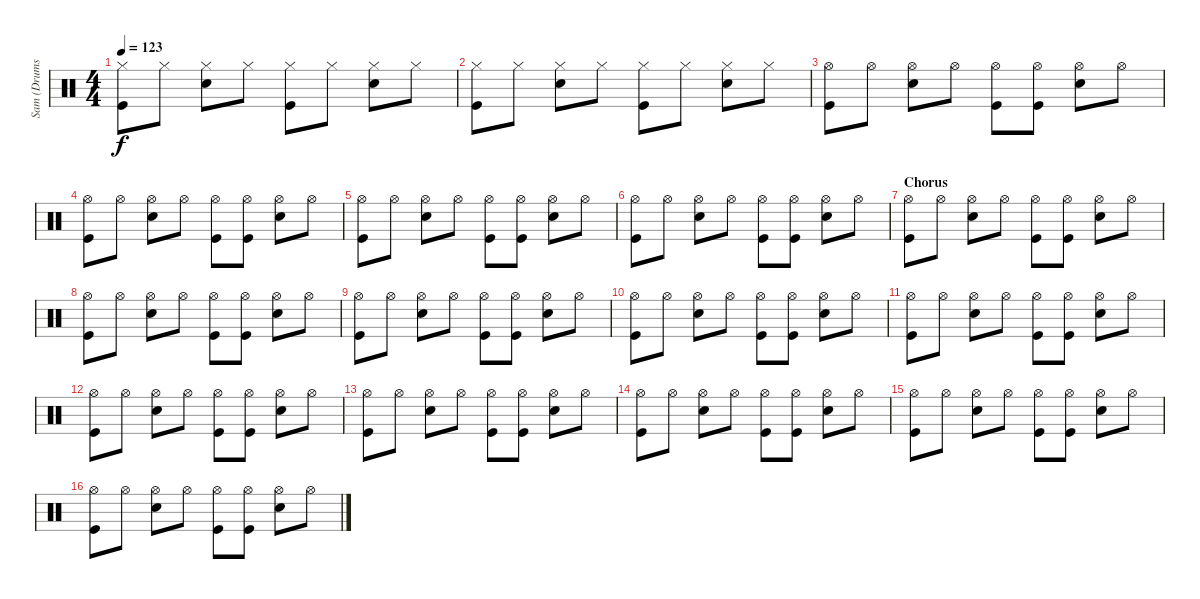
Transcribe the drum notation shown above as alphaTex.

\track ("Sam (Drums)" "Sam (Drums") {instrument percussion}
\staff {score}
\articulation defaults
\ts (4 4)
\tempo 123
\clef neutral
\ks c
("Hi-Hat (closed)" "Kick (hit)").8{dy f} "Hi-Hat (closed)".8 ("Hi-Hat (closed)" "Snare (hit) 2").8 "Hi-Hat (closed)".8 ("Hi-Hat (closed)" "Kick (hit)").8 "Hi-Hat (closed)".8 ("Hi-Hat (closed)" "Snare (hit) 2").8 "Hi-Hat (closed)".8 |
("Hi-Hat (closed)" "Kick (hit)").8 "Hi-Hat (closed)".8 ("Hi-Hat (closed)" "Snare (hit) 2").8 "Hi-Hat (closed)".8 ("Hi-Hat (closed)" "Kick (hit)").8 "Hi-Hat (closed)".8 ("Hi-Hat (closed)" "Snare (hit) 2").8 "Hi-Hat (closed)".8 |
("Hi-Hat (open)" "Kick (hit)").8 "Hi-Hat (open)".8 ("Hi-Hat (open)" "Snare (hit) 2").8 "Hi-Hat (open)".8 ("Hi-Hat (open)" "Kick (hit)").8 ("Hi-Hat (open)" "Kick (hit)").8 ("Hi-Hat (open)" "Snare (hit) 2").8 "Hi-Hat (open)".8 |
("Hi-Hat (open)" "Kick (hit)").8 "Hi-Hat (open)".8 ("Hi-Hat (open)" "Snare (hit) 2").8 "Hi-Hat (open)".8 ("Hi-Hat (open)" "Kick (hit)").8 ("Hi-Hat (open)" "Kick (hit)").8 ("Hi-Hat (open)" "Snare (hit) 2").8 "Hi-Hat (open)".8 |
("Hi-Hat (open)" "Kick (hit)").8 "Hi-Hat (open)".8 ("Hi-Hat (open)" "Snare (hit) 2").8 "Hi-Hat (open)".8 ("Hi-Hat (open)" "Kick (hit)").8 ("Hi-Hat (open)" "Kick (hit)").8 ("Hi-Hat (open)" "Snare (hit) 2").8 "Hi-Hat (open)".8 |
("Hi-Hat (open)" "Kick (hit)").8 "Hi-Hat (open)".8 ("Hi-Hat (open)" "Snare (hit) 2").8 "Hi-Hat (open)".8 ("Hi-Hat (open)" "Kick (hit)").8 ("Hi-Hat (open)" "Kick (hit)").8 ("Hi-Hat (open)" "Snare (hit) 2").8 "Hi-Hat (open)".8 |
\section ("" "Chorus")
("Hi-Hat (open)" "Kick (hit)").8 "Hi-Hat (open)".8 ("Hi-Hat (open)" "Snare (hit) 2").8 "Hi-Hat (open)".8 ("Hi-Hat (open)" "Kick (hit)").8 ("Hi-Hat (open)" "Kick (hit)").8 ("Hi-Hat (open)" "Snare (hit) 2").8 "Hi-Hat (open)".8 |
("Hi-Hat (open)" "Kick (hit)").8 "Hi-Hat (open)".8 ("Hi-Hat (open)" "Snare (hit) 2").8 "Hi-Hat (open)".8 ("Hi-Hat (open)" "Kick (hit)").8 ("Hi-Hat (open)" "Kick (hit)").8 ("Hi-Hat (open)" "Snare (hit) 2").8 "Hi-Hat (open)".8 |
("Hi-Hat (open)" "Kick (hit)").8 "Hi-Hat (open)".8 ("Hi-Hat (open)" "Snare (hit) 2").8 "Hi-Hat (open)".8 ("Hi-Hat (open)" "Kick (hit)").8 ("Hi-Hat (open)" "Kick (hit)").8 ("Hi-Hat (open)" "Snare (hit) 2").8 "Hi-Hat (open)".8 |
("Hi-Hat (open)" "Kick (hit)").8 "Hi-Hat (open)".8 ("Hi-Hat (open)" "Snare (hit) 2").8 "Hi-Hat (open)".8 ("Hi-Hat (open)" "Kick (hit)").8 ("Hi-Hat (open)" "Kick (hit)").8 ("Hi-Hat (open)" "Snare (hit) 2").8 "Hi-Hat (open)".8 |
("Hi-Hat (open)" "Kick (hit)").8 "Hi-Hat (open)".8 ("Hi-Hat (open)" "Snare (hit) 2").8 "Hi-Hat (open)".8 ("Hi-Hat (open)" "Kick (hit)").8 ("Hi-Hat (open)" "Kick (hit)").8 ("Hi-Hat (open)" "Snare (hit) 2").8 "Hi-Hat (open)".8 |
("Hi-Hat (open)" "Kick (hit)").8 "Hi-Hat (open)".8 ("Hi-Hat (open)" "Snare (hit) 2").8 "Hi-Hat (open)".8 ("Hi-Hat (open)" "Kick (hit)").8 ("Hi-Hat (open)" "Kick (hit)").8 ("Hi-Hat (open)" "Snare (hit) 2").8 "Hi-Hat (open)".8 |
("Hi-Hat (open)" "Kick (hit)").8 "Hi-Hat (open)".8 ("Hi-Hat (open)" "Snare (hit) 2").8 "Hi-Hat (open)".8 ("Hi-Hat (open)" "Kick (hit)").8 ("Hi-Hat (open)" "Kick (hit)").8 ("Hi-Hat (open)" "Snare (hit) 2").8 "Hi-Hat (open)".8 |
("Hi-Hat (open)" "Kick (hit)").8 "Hi-Hat (open)".8 ("Hi-Hat (open)" "Snare (hit) 2").8 "Hi-Hat (open)".8 ("Hi-Hat (open)" "Kick (hit)").8 ("Hi-Hat (open)" "Kick (hit)").8 ("Hi-Hat (open)" "Snare (hit) 2").8 "Hi-Hat (open)".8 |
("Hi-Hat (open)" "Kick (hit)").8 "Hi-Hat (open)".8 ("Hi-Hat (open)" "Snare (hit) 2").8 "Hi-Hat (open)".8 ("Hi-Hat (open)" "Kick (hit)").8 ("Hi-Hat (open)" "Kick (hit)").8 ("Hi-Hat (open)" "Snare (hit) 2").8 "Hi-Hat (open)".8 |
("Hi-Hat (open)" "Kick (hit)").8 "Hi-Hat (open)".8 ("Hi-Hat (open)" "Snare (hit) 2").8 "Hi-Hat (open)".8 ("Hi-Hat (open)" "Kick (hit)").8 ("Hi-Hat (open)" "Kick (hit)").8 ("Hi-Hat (open)" "Snare (hit) 2").8 "Hi-Hat (open)".8
